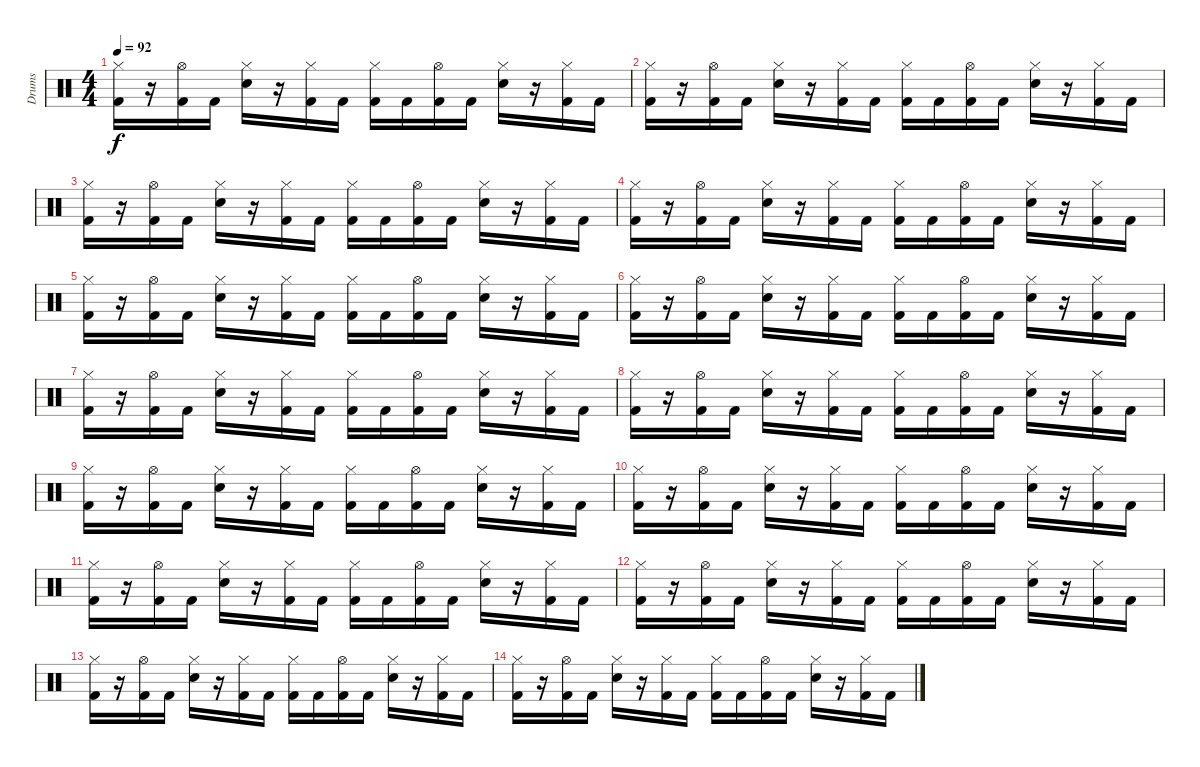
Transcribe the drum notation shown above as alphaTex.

\track ("Drums" "Drums") {instrument percussion}
\staff {score}
\articulation defaults
\ts (4 4)
\tempo 92
\clef neutral
\ks c
("Hi-Hat (closed)" "Kick (hit) 2").16{dy f} r.16 ("Hi-Hat (open)" "Kick (hit) 2").16 "Kick (hit) 2".16 ("Hi-Hat (closed)" "Snare (hit) 2").16 r.16 ("Hi-Hat (closed)" "Kick (hit) 2").16 "Kick (hit) 2".16 ("Hi-Hat (closed)" "Kick (hit) 2").16 "Kick (hit) 2".16 ("Hi-Hat (open)" "Kick (hit) 2").16 "Kick (hit) 2".16 ("Hi-Hat (closed)" "Snare (hit) 2").16 r.16 ("Hi-Hat (closed)" "Kick (hit) 2").16 "Kick (hit) 2".16 |
("Hi-Hat (closed)" "Kick (hit) 2").16 r.16 ("Hi-Hat (open)" "Kick (hit) 2").16 "Kick (hit) 2".16 ("Hi-Hat (closed)" "Snare (hit) 2").16 r.16 ("Hi-Hat (closed)" "Kick (hit) 2").16 "Kick (hit) 2".16 ("Hi-Hat (closed)" "Kick (hit) 2").16 "Kick (hit) 2".16 ("Hi-Hat (open)" "Kick (hit) 2").16 "Kick (hit) 2".16 ("Hi-Hat (closed)" "Snare (hit) 2").16 r.16 ("Hi-Hat (closed)" "Kick (hit) 2").16 "Kick (hit) 2".16 |
("Hi-Hat (closed)" "Kick (hit) 2").16 r.16 ("Hi-Hat (open)" "Kick (hit) 2").16 "Kick (hit) 2".16 ("Hi-Hat (closed)" "Snare (hit) 2").16 r.16 ("Hi-Hat (closed)" "Kick (hit) 2").16 "Kick (hit) 2".16 ("Hi-Hat (closed)" "Kick (hit) 2").16 "Kick (hit) 2".16 ("Hi-Hat (open)" "Kick (hit) 2").16 "Kick (hit) 2".16 ("Hi-Hat (closed)" "Snare (hit) 2").16 r.16 ("Hi-Hat (closed)" "Kick (hit) 2").16 "Kick (hit) 2".16 |
("Hi-Hat (closed)" "Kick (hit) 2").16 r.16 ("Hi-Hat (open)" "Kick (hit) 2").16 "Kick (hit) 2".16 ("Hi-Hat (closed)" "Snare (hit) 2").16 r.16 ("Hi-Hat (closed)" "Kick (hit) 2").16 "Kick (hit) 2".16 ("Hi-Hat (closed)" "Kick (hit) 2").16 "Kick (hit) 2".16 ("Hi-Hat (open)" "Kick (hit) 2").16 "Kick (hit) 2".16 ("Hi-Hat (closed)" "Snare (hit) 2").16 r.16 ("Hi-Hat (closed)" "Kick (hit) 2").16 "Kick (hit) 2".16 |
("Hi-Hat (closed)" "Kick (hit) 2").16 r.16 ("Hi-Hat (open)" "Kick (hit) 2").16 "Kick (hit) 2".16 ("Hi-Hat (closed)" "Snare (hit) 2").16 r.16 ("Hi-Hat (closed)" "Kick (hit) 2").16 "Kick (hit) 2".16 ("Hi-Hat (closed)" "Kick (hit) 2").16 "Kick (hit) 2".16 ("Hi-Hat (open)" "Kick (hit) 2").16 "Kick (hit) 2".16 ("Hi-Hat (closed)" "Snare (hit) 2").16 r.16 ("Hi-Hat (closed)" "Kick (hit) 2").16 "Kick (hit) 2".16 |
("Hi-Hat (closed)" "Kick (hit) 2").16 r.16 ("Hi-Hat (open)" "Kick (hit) 2").16 "Kick (hit) 2".16 ("Hi-Hat (closed)" "Snare (hit) 2").16 r.16 ("Hi-Hat (closed)" "Kick (hit) 2").16 "Kick (hit) 2".16 ("Hi-Hat (closed)" "Kick (hit) 2").16 "Kick (hit) 2".16 ("Hi-Hat (open)" "Kick (hit) 2").16 "Kick (hit) 2".16 ("Hi-Hat (closed)" "Snare (hit) 2").16 r.16 ("Hi-Hat (closed)" "Kick (hit) 2").16 "Kick (hit) 2".16 |
("Hi-Hat (closed)" "Kick (hit) 2").16 r.16 ("Hi-Hat (open)" "Kick (hit) 2").16 "Kick (hit) 2".16 ("Hi-Hat (closed)" "Snare (hit) 2").16 r.16 ("Hi-Hat (closed)" "Kick (hit) 2").16 "Kick (hit) 2".16 ("Hi-Hat (closed)" "Kick (hit) 2").16 "Kick (hit) 2".16 ("Hi-Hat (open)" "Kick (hit) 2").16 "Kick (hit) 2".16 ("Hi-Hat (closed)" "Snare (hit) 2").16 r.16 ("Hi-Hat (closed)" "Kick (hit) 2").16 "Kick (hit) 2".16 |
("Hi-Hat (closed)" "Kick (hit) 2").16 r.16 ("Hi-Hat (open)" "Kick (hit) 2").16 "Kick (hit) 2".16 ("Hi-Hat (closed)" "Snare (hit) 2").16 r.16 ("Hi-Hat (closed)" "Kick (hit) 2").16 "Kick (hit) 2".16 ("Hi-Hat (closed)" "Kick (hit) 2").16 "Kick (hit) 2".16 ("Hi-Hat (open)" "Kick (hit) 2").16 "Kick (hit) 2".16 ("Hi-Hat (closed)" "Snare (hit) 2").16 r.16 ("Hi-Hat (closed)" "Kick (hit) 2").16 "Kick (hit) 2".16 |
("Hi-Hat (closed)" "Kick (hit) 2").16 r.16 ("Hi-Hat (open)" "Kick (hit) 2").16 "Kick (hit) 2".16 ("Hi-Hat (closed)" "Snare (hit) 2").16 r.16 ("Hi-Hat (closed)" "Kick (hit) 2").16 "Kick (hit) 2".16 ("Hi-Hat (closed)" "Kick (hit) 2").16 "Kick (hit) 2".16 ("Hi-Hat (open)" "Kick (hit) 2").16 "Kick (hit) 2".16 ("Hi-Hat (closed)" "Snare (hit) 2").16 r.16 ("Hi-Hat (closed)" "Kick (hit) 2").16 "Kick (hit) 2".16 |
("Hi-Hat (closed)" "Kick (hit) 2").16 r.16 ("Hi-Hat (open)" "Kick (hit) 2").16 "Kick (hit) 2".16 ("Hi-Hat (closed)" "Snare (hit) 2").16 r.16 ("Hi-Hat (closed)" "Kick (hit) 2").16 "Kick (hit) 2".16 ("Hi-Hat (closed)" "Kick (hit) 2").16 "Kick (hit) 2".16 ("Hi-Hat (open)" "Kick (hit) 2").16 "Kick (hit) 2".16 ("Hi-Hat (closed)" "Snare (hit) 2").16 r.16 ("Hi-Hat (closed)" "Kick (hit) 2").16 "Kick (hit) 2".16 |
("Hi-Hat (closed)" "Kick (hit) 2").16 r.16 ("Hi-Hat (open)" "Kick (hit) 2").16 "Kick (hit) 2".16 ("Hi-Hat (closed)" "Snare (hit) 2").16 r.16 ("Hi-Hat (closed)" "Kick (hit) 2").16 "Kick (hit) 2".16 ("Hi-Hat (closed)" "Kick (hit) 2").16 "Kick (hit) 2".16 ("Hi-Hat (open)" "Kick (hit) 2").16 "Kick (hit) 2".16 ("Hi-Hat (closed)" "Snare (hit) 2").16 r.16 ("Hi-Hat (closed)" "Kick (hit) 2").16 "Kick (hit) 2".16 |
("Hi-Hat (closed)" "Kick (hit) 2").16 r.16 ("Hi-Hat (open)" "Kick (hit) 2").16 "Kick (hit) 2".16 ("Hi-Hat (closed)" "Snare (hit) 2").16 r.16 ("Hi-Hat (closed)" "Kick (hit) 2").16 "Kick (hit) 2".16 ("Hi-Hat (closed)" "Kick (hit) 2").16 "Kick (hit) 2".16 ("Hi-Hat (open)" "Kick (hit) 2").16 "Kick (hit) 2".16 ("Hi-Hat (closed)" "Snare (hit) 2").16 r.16 ("Hi-Hat (closed)" "Kick (hit) 2").16 "Kick (hit) 2".16 |
("Hi-Hat (closed)" "Kick (hit) 2").16{volume 0} r.16 ("Hi-Hat (open)" "Kick (hit) 2").16 "Kick (hit) 2".16 ("Hi-Hat (closed)" "Snare (hit) 2").16 r.16 ("Hi-Hat (closed)" "Kick (hit) 2").16 "Kick (hit) 2".16 ("Hi-Hat (closed)" "Kick (hit) 2").16 "Kick (hit) 2".16 ("Hi-Hat (open)" "Kick (hit) 2").16 "Kick (hit) 2".16 ("Hi-Hat (closed)" "Snare (hit) 2").16 r.16 ("Hi-Hat (closed)" "Kick (hit) 2").16 "Kick (hit) 2".16 |
("Hi-Hat (closed)" "Kick (hit) 2").16 r.16 ("Hi-Hat (open)" "Kick (hit) 2").16 "Kick (hit) 2".16 ("Hi-Hat (closed)" "Snare (hit) 2").16 r.16 ("Hi-Hat (closed)" "Kick (hit) 2").16 "Kick (hit) 2".16 ("Hi-Hat (closed)" "Kick (hit) 2").16 "Kick (hit) 2".16 ("Hi-Hat (open)" "Kick (hit) 2").16 "Kick (hit) 2".16 ("Hi-Hat (closed)" "Snare (hit) 2").16 r.16 ("Hi-Hat (closed)" "Kick (hit) 2").16 "Kick (hit) 2".16
